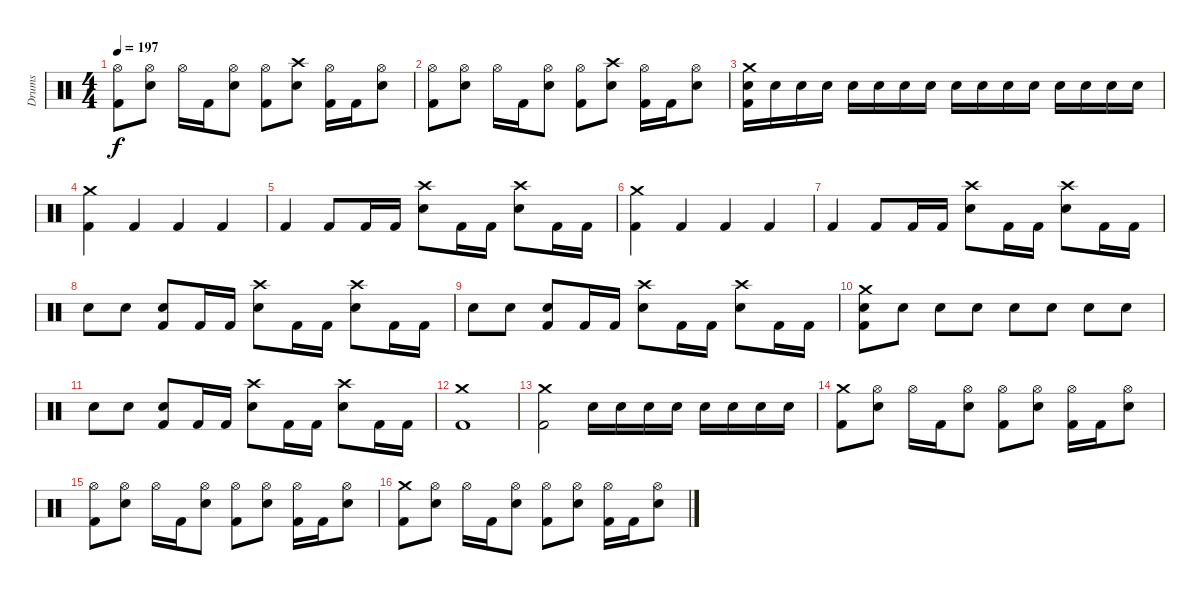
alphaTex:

\track ("Drums" "Drums") {instrument percussion}
\staff {score}
\articulation defaults
\ts (4 4)
\tempo 197
\clef neutral
\ks c
("Hi-Hat (open)" "Kick (hit) 2").8{dy f} ("Hi-Hat (open)" "Snare (hit) 2").8 "Hi-Hat (open)".16 "Kick (hit) 2".16 ("Hi-Hat (open)" "Snare (hit) 2").8 ("Hi-Hat (open)" "Kick (hit) 2").8 ("Crash high (hit)" "Snare (hit) 2").8 ("Hi-Hat (open)" "Kick (hit) 2").16 "Kick (hit) 2".16 ("Hi-Hat (open)" "Snare (hit) 2").8 |
("Hi-Hat (open)" "Kick (hit) 2").8 ("Hi-Hat (open)" "Snare (hit) 2").8 "Hi-Hat (open)".16 "Kick (hit) 2".16 ("Hi-Hat (open)" "Snare (hit) 2").8 ("Hi-Hat (open)" "Kick (hit) 2").8 ("Crash high (hit)" "Snare (hit) 2").8 ("Hi-Hat (open)" "Kick (hit) 2").16 "Kick (hit) 2".16 ("Hi-Hat (open)" "Snare (hit) 2").8 |
("Crash medium (hit)" "Snare (hit) 2" "Kick (hit) 2").16 "Snare (hit) 2".16 "Snare (hit) 2".16 "Snare (hit) 2".16 "Snare (hit) 2".16 "Snare (hit) 2".16 "Snare (hit) 2".16 "Snare (hit) 2".16 "Snare (hit) 2".16 "Snare (hit) 2".16 "Snare (hit) 2".16 "Snare (hit) 2".16 "Snare (hit) 2".16 "Snare (hit) 2".16 "Snare (hit) 2".16 "Snare (hit) 2".16 |
("Crash medium (hit)" "Kick (hit) 2").4 "Kick (hit) 2".4 "Kick (hit) 2".4 "Kick (hit) 2".4 |
"Kick (hit) 2".4 "Kick (hit) 2".8 "Kick (hit) 2".16 "Kick (hit) 2".16 ("Crash high (hit)" "Snare (hit) 2").8 "Kick (hit) 2".16 "Kick (hit) 2".16 ("Crash high (hit)" "Snare (hit) 2").8 "Kick (hit) 2".16 "Kick (hit) 2".16 |
("Crash medium (hit)" "Kick (hit) 2").4 "Kick (hit) 2".4 "Kick (hit) 2".4 "Kick (hit) 2".4 |
"Kick (hit) 2".4 "Kick (hit) 2".8 "Kick (hit) 2".16 "Kick (hit) 2".16 ("Crash high (hit)" "Snare (hit) 2").8 "Kick (hit) 2".16 "Kick (hit) 2".16 ("Crash high (hit)" "Snare (hit) 2").8 "Kick (hit) 2".16 "Kick (hit) 2".16 |
"Snare (hit) 2".8 "Snare (hit) 2".8 ("Snare (hit) 2" "Kick (hit) 2").8 "Kick (hit) 2".16 "Kick (hit) 2".16 ("Crash high (hit)" "Snare (hit) 2").8 "Kick (hit) 2".16 "Kick (hit) 2".16 ("Crash high (hit)" "Snare (hit) 2").8 "Kick (hit) 2".16 "Kick (hit) 2".16 |
"Snare (hit) 2".8 "Snare (hit) 2".8 ("Snare (hit) 2" "Kick (hit) 2").8 "Kick (hit) 2".16 "Kick (hit) 2".16 ("Crash high (hit)" "Snare (hit) 2").8 "Kick (hit) 2".16 "Kick (hit) 2".16 ("Crash high (hit)" "Snare (hit) 2").8 "Kick (hit) 2".16 "Kick (hit) 2".16 |
("Crash medium (hit)" "Snare (hit) 2" "Kick (hit) 2").8 "Snare (hit) 2".8 "Snare (hit) 2".8 "Snare (hit) 2".8 "Snare (hit) 2".8 "Snare (hit) 2".8 "Snare (hit) 2".8 "Snare (hit) 2".8 |
"Snare (hit) 2".8 "Snare (hit) 2".8 ("Snare (hit) 2" "Kick (hit) 2").8 "Kick (hit) 2".16 "Kick (hit) 2".16 ("Crash high (hit)" "Snare (hit) 2").8 "Kick (hit) 2".16 "Kick (hit) 2".16 ("Crash high (hit)" "Snare (hit) 2").8 "Kick (hit) 2".16 "Kick (hit) 2".16 |
("Crash medium (hit)" "Kick (hit) 2").1 |
("Crash medium (hit)" "Kick (hit) 2").2 "Snare (hit) 2".16 "Snare (hit) 2".16 "Snare (hit) 2".16 "Snare (hit) 2".16 "Snare (hit) 2".16 "Snare (hit) 2".16 "Snare (hit) 2".16 "Snare (hit) 2".16 |
("Crash medium (hit)" "Kick (hit) 2").8 ("Hi-Hat (open)" "Snare (hit) 2").8 "Hi-Hat (open)".16 "Kick (hit) 2".16 ("Hi-Hat (open)" "Snare (hit) 2").8 ("Hi-Hat (open)" "Kick (hit) 2").8 ("Hi-Hat (open)" "Snare (hit) 2").8 ("Hi-Hat (open)" "Kick (hit) 2").16 "Kick (hit) 2".16 ("Hi-Hat (open)" "Snare (hit) 2").8 |
("Hi-Hat (open)" "Kick (hit) 2").8 ("Hi-Hat (open)" "Snare (hit) 2").8 "Hi-Hat (open)".16 "Kick (hit) 2".16 ("Hi-Hat (open)" "Snare (hit) 2").8 ("Hi-Hat (open)" "Kick (hit) 2").8 ("Hi-Hat (open)" "Snare (hit) 2").8 ("Hi-Hat (open)" "Kick (hit) 2").16 "Kick (hit) 2".16 ("Hi-Hat (open)" "Snare (hit) 2").8 |
("Crash medium (hit)" "Kick (hit) 2").8 ("Hi-Hat (open)" "Snare (hit) 2").8 "Hi-Hat (open)".16 "Kick (hit) 2".16 ("Hi-Hat (open)" "Snare (hit) 2").8 ("Hi-Hat (open)" "Kick (hit) 2").8 ("Hi-Hat (open)" "Snare (hit) 2").8 ("Hi-Hat (open)" "Kick (hit) 2").16 "Kick (hit) 2".16 ("Hi-Hat (open)" "Snare (hit) 2").8
